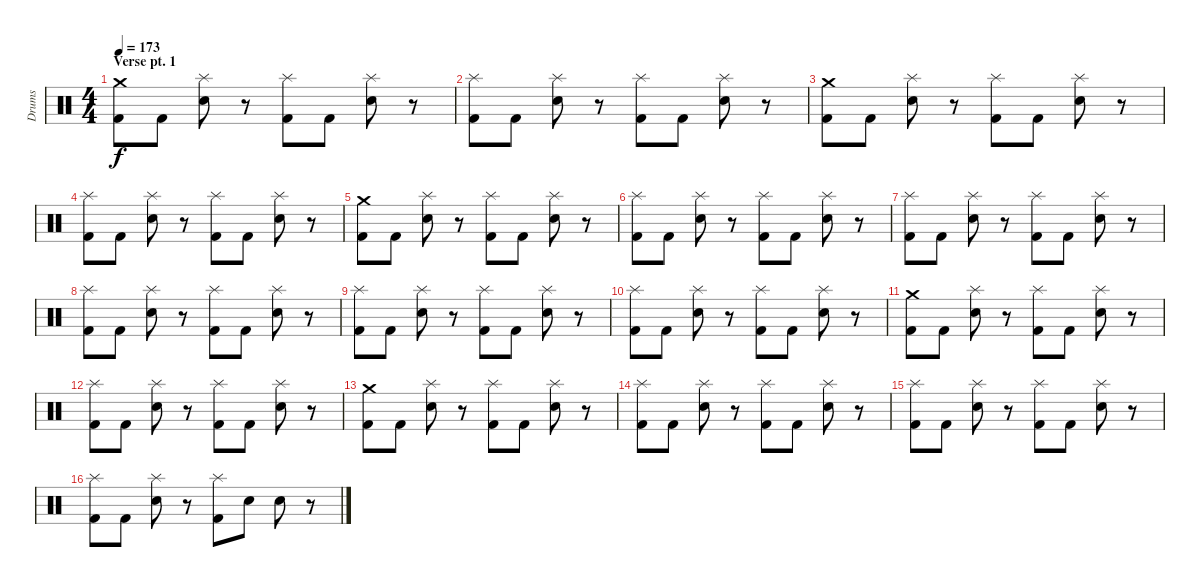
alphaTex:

\track ("Drums" "Drums") {instrument percussion}
\staff {score}
\articulation defaults
\ts (4 4)
\section ("" "Verse pt. 1")
\tempo 173
\clef neutral
\ks c
("Crash medium (hit)" "Kick (hit) 2").8{dy f} "Kick (hit) 2".8 ("Splash (hit)" "Snare (hit) 2").8 r.8 ("Splash (hit)" "Kick (hit) 2").8 "Kick (hit) 2".8 ("Splash (hit)" "Snare (hit) 2").8 r.8 |
("Splash (hit)" "Kick (hit) 2").8 "Kick (hit) 2".8 ("Splash (hit)" "Snare (hit) 2").8 r.8 ("Splash (hit)" "Kick (hit) 2").8 "Kick (hit) 2".8 ("Splash (hit)" "Snare (hit) 2").8 r.8 |
("Crash medium (hit)" "Kick (hit) 2").8 "Kick (hit) 2".8 ("Splash (hit)" "Snare (hit) 2").8 r.8 ("Splash (hit)" "Kick (hit) 2").8 "Kick (hit) 2".8 ("Splash (hit)" "Snare (hit) 2").8 r.8 |
("Splash (hit)" "Kick (hit) 2").8 "Kick (hit) 2".8 ("Splash (hit)" "Snare (hit) 2").8 r.8 ("Splash (hit)" "Kick (hit) 2").8 "Kick (hit) 2".8 ("Splash (hit)" "Snare (hit) 2").8 r.8 |
("Crash medium (hit)" "Kick (hit) 2").8 "Kick (hit) 2".8 ("Splash (hit)" "Snare (hit) 2").8 r.8 ("Splash (hit)" "Kick (hit) 2").8 "Kick (hit) 2".8 ("Splash (hit)" "Snare (hit) 2").8 r.8 |
("Splash (hit)" "Kick (hit) 2").8 "Kick (hit) 2".8 ("Splash (hit)" "Snare (hit) 2").8 r.8 ("Splash (hit)" "Kick (hit) 2").8 "Kick (hit) 2".8 ("Splash (hit)" "Snare (hit) 2").8 r.8 |
("Splash (hit)" "Kick (hit) 2").8 "Kick (hit) 2".8 ("Splash (hit)" "Snare (hit) 2").8 r.8 ("Splash (hit)" "Kick (hit) 2").8 "Kick (hit) 2".8 ("Splash (hit)" "Snare (hit) 2").8 r.8 |
("Splash (hit)" "Kick (hit) 2").8 "Kick (hit) 2".8 ("Splash (hit)" "Snare (hit) 2").8 r.8 ("Splash (hit)" "Kick (hit) 2").8 "Kick (hit) 2".8 ("Splash (hit)" "Snare (hit) 2").8 r.8 |
("Splash (hit)" "Kick (hit) 2").8 "Kick (hit) 2".8 ("Splash (hit)" "Snare (hit) 2").8 r.8 ("Splash (hit)" "Kick (hit) 2").8 "Kick (hit) 2".8 ("Splash (hit)" "Snare (hit) 2").8 r.8 |
("Splash (hit)" "Kick (hit) 2").8 "Kick (hit) 2".8 ("Splash (hit)" "Snare (hit) 2").8 r.8 ("Splash (hit)" "Kick (hit) 2").8 "Kick (hit) 2".8 ("Splash (hit)" "Snare (hit) 2").8 r.8 |
("Crash medium (hit)" "Kick (hit) 2").8 "Kick (hit) 2".8 ("Splash (hit)" "Snare (hit) 2").8 r.8 ("Splash (hit)" "Kick (hit) 2").8 "Kick (hit) 2".8 ("Splash (hit)" "Snare (hit) 2").8 r.8 |
("Splash (hit)" "Kick (hit) 2").8 "Kick (hit) 2".8 ("Splash (hit)" "Snare (hit) 2").8 r.8 ("Splash (hit)" "Kick (hit) 2").8 "Kick (hit) 2".8 ("Splash (hit)" "Snare (hit) 2").8 r.8 |
("Crash medium (hit)" "Kick (hit) 2").8 "Kick (hit) 2".8 ("Splash (hit)" "Snare (hit) 2").8 r.8 ("Splash (hit)" "Kick (hit) 2").8 "Kick (hit) 2".8 ("Splash (hit)" "Snare (hit) 2").8 r.8 |
("Splash (hit)" "Kick (hit) 2").8 "Kick (hit) 2".8 ("Splash (hit)" "Snare (hit) 2").8 r.8 ("Splash (hit)" "Kick (hit) 2").8 "Kick (hit) 2".8 ("Splash (hit)" "Snare (hit) 2").8 r.8 |
("Splash (hit)" "Kick (hit) 2").8 "Kick (hit) 2".8 ("Splash (hit)" "Snare (hit) 2").8 r.8 ("Splash (hit)" "Kick (hit) 2").8 "Kick (hit) 2".8 ("Splash (hit)" "Snare (hit) 2").8 r.8 |
("Splash (hit)" "Kick (hit) 2").8 "Kick (hit) 2".8 ("Splash (hit)" "Snare (hit) 2").8 r.8 ("Splash (hit)" "Kick (hit) 2").8 "Snare (hit) 2".8 "Snare (hit) 2".8 r.8
